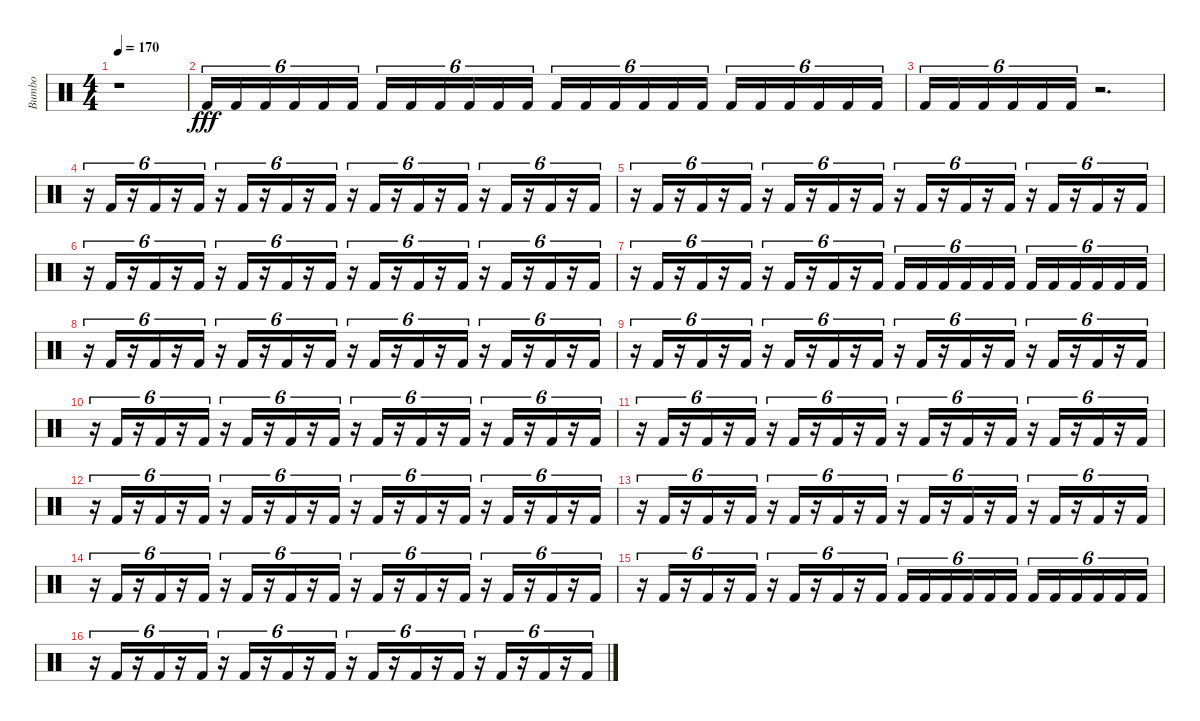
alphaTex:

\track ("Bumbo" "Bumbo") {instrument percussion}
\staff {score}
\articulation defaults
\ts (4 4)
\tempo 170
\clef neutral
\ks c
r.1{dy fff} |
"Kick (hit) 2".16{tu (6 4)} "Kick (hit) 2".16{tu (6 4)} "Kick (hit) 2".16{tu (6 4)} "Kick (hit) 2".16{tu (6 4)} "Kick (hit) 2".16{tu (6 4)} "Kick (hit) 2".16{tu (6 4)} "Kick (hit) 2".16{tu (6 4)} "Kick (hit) 2".16{tu (6 4)} "Kick (hit) 2".16{tu (6 4)} "Kick (hit) 2".16{tu (6 4)} "Kick (hit) 2".16{tu (6 4)} "Kick (hit) 2".16{tu (6 4)} "Kick (hit) 2".16{tu (6 4)} "Kick (hit) 2".16{tu (6 4)} "Kick (hit) 2".16{tu (6 4)} "Kick (hit) 2".16{tu (6 4)} "Kick (hit) 2".16{tu (6 4)} "Kick (hit) 2".16{tu (6 4)} "Kick (hit) 2".16{tu (6 4)} "Kick (hit) 2".16{tu (6 4)} "Kick (hit) 2".16{tu (6 4)} "Kick (hit) 2".16{tu (6 4)} "Kick (hit) 2".16{tu (6 4)} "Kick (hit) 2".16{tu (6 4)} |
"Kick (hit) 2".16{tu (6 4)} "Kick (hit) 2".16{tu (6 4)} "Kick (hit) 2".16{tu (6 4)} "Kick (hit) 2".16{tu (6 4)} "Kick (hit) 2".16{tu (6 4)} "Kick (hit) 2".16{tu (6 4)} r.2{d} |
r.16{tu (6 4)} "Kick (hit) 2".16{tu (6 4)} r.16{tu (6 4)} "Kick (hit) 2".16{tu (6 4)} r.16{tu (6 4)} "Kick (hit) 2".16{tu (6 4)} r.16{tu (6 4)} "Kick (hit) 2".16{tu (6 4)} r.16{tu (6 4)} "Kick (hit) 2".16{tu (6 4)} r.16{tu (6 4)} "Kick (hit) 2".16{tu (6 4)} r.16{tu (6 4)} "Kick (hit) 2".16{tu (6 4)} r.16{tu (6 4)} "Kick (hit) 2".16{tu (6 4)} r.16{tu (6 4)} "Kick (hit) 2".16{tu (6 4)} r.16{tu (6 4)} "Kick (hit) 2".16{tu (6 4)} r.16{tu (6 4)} "Kick (hit) 2".16{tu (6 4)} r.16{tu (6 4)} "Kick (hit) 2".16{tu (6 4)} |
r.16{tu (6 4)} "Kick (hit) 2".16{tu (6 4)} r.16{tu (6 4)} "Kick (hit) 2".16{tu (6 4)} r.16{tu (6 4)} "Kick (hit) 2".16{tu (6 4)} r.16{tu (6 4)} "Kick (hit) 2".16{tu (6 4)} r.16{tu (6 4)} "Kick (hit) 2".16{tu (6 4)} r.16{tu (6 4)} "Kick (hit) 2".16{tu (6 4)} r.16{tu (6 4)} "Kick (hit) 2".16{tu (6 4)} r.16{tu (6 4)} "Kick (hit) 2".16{tu (6 4)} r.16{tu (6 4)} "Kick (hit) 2".16{tu (6 4)} r.16{tu (6 4)} "Kick (hit) 2".16{tu (6 4)} r.16{tu (6 4)} "Kick (hit) 2".16{tu (6 4)} r.16{tu (6 4)} "Kick (hit) 2".16{tu (6 4)} |
r.16{tu (6 4)} "Kick (hit) 2".16{tu (6 4)} r.16{tu (6 4)} "Kick (hit) 2".16{tu (6 4)} r.16{tu (6 4)} "Kick (hit) 2".16{tu (6 4)} r.16{tu (6 4)} "Kick (hit) 2".16{tu (6 4)} r.16{tu (6 4)} "Kick (hit) 2".16{tu (6 4)} r.16{tu (6 4)} "Kick (hit) 2".16{tu (6 4)} r.16{tu (6 4)} "Kick (hit) 2".16{tu (6 4)} r.16{tu (6 4)} "Kick (hit) 2".16{tu (6 4)} r.16{tu (6 4)} "Kick (hit) 2".16{tu (6 4)} r.16{tu (6 4)} "Kick (hit) 2".16{tu (6 4)} r.16{tu (6 4)} "Kick (hit) 2".16{tu (6 4)} r.16{tu (6 4)} "Kick (hit) 2".16{tu (6 4)} |
r.16{tu (6 4)} "Kick (hit) 2".16{tu (6 4)} r.16{tu (6 4)} "Kick (hit) 2".16{tu (6 4)} r.16{tu (6 4)} "Kick (hit) 2".16{tu (6 4)} r.16{tu (6 4)} "Kick (hit) 2".16{tu (6 4)} r.16{tu (6 4)} "Kick (hit) 2".16{tu (6 4)} r.16{tu (6 4)} "Kick (hit) 2".16{tu (6 4)} "Kick (hit) 2".16{tu (6 4)} "Kick (hit) 2".16{tu (6 4)} "Kick (hit) 2".16{tu (6 4)} "Kick (hit) 2".16{tu (6 4)} "Kick (hit) 2".16{tu (6 4)} "Kick (hit) 2".16{tu (6 4)} "Kick (hit) 2".16{tu (6 4)} "Kick (hit) 2".16{tu (6 4)} "Kick (hit) 2".16{tu (6 4)} "Kick (hit) 2".16{tu (6 4)} "Kick (hit) 2".16{tu (6 4)} "Kick (hit) 2".16{tu (6 4)} |
r.16{tu (6 4)} "Kick (hit) 2".16{tu (6 4)} r.16{tu (6 4)} "Kick (hit) 2".16{tu (6 4)} r.16{tu (6 4)} "Kick (hit) 2".16{tu (6 4)} r.16{tu (6 4)} "Kick (hit) 2".16{tu (6 4)} r.16{tu (6 4)} "Kick (hit) 2".16{tu (6 4)} r.16{tu (6 4)} "Kick (hit) 2".16{tu (6 4)} r.16{tu (6 4)} "Kick (hit) 2".16{tu (6 4)} r.16{tu (6 4)} "Kick (hit) 2".16{tu (6 4)} r.16{tu (6 4)} "Kick (hit) 2".16{tu (6 4)} r.16{tu (6 4)} "Kick (hit) 2".16{tu (6 4)} r.16{tu (6 4)} "Kick (hit) 2".16{tu (6 4)} r.16{tu (6 4)} "Kick (hit) 2".16{tu (6 4)} |
r.16{tu (6 4)} "Kick (hit) 2".16{tu (6 4)} r.16{tu (6 4)} "Kick (hit) 2".16{tu (6 4)} r.16{tu (6 4)} "Kick (hit) 2".16{tu (6 4)} r.16{tu (6 4)} "Kick (hit) 2".16{tu (6 4)} r.16{tu (6 4)} "Kick (hit) 2".16{tu (6 4)} r.16{tu (6 4)} "Kick (hit) 2".16{tu (6 4)} r.16{tu (6 4)} "Kick (hit) 2".16{tu (6 4)} r.16{tu (6 4)} "Kick (hit) 2".16{tu (6 4)} r.16{tu (6 4)} "Kick (hit) 2".16{tu (6 4)} r.16{tu (6 4)} "Kick (hit) 2".16{tu (6 4)} r.16{tu (6 4)} "Kick (hit) 2".16{tu (6 4)} r.16{tu (6 4)} "Kick (hit) 2".16{tu (6 4)} |
r.16{tu (6 4)} "Kick (hit) 2".16{tu (6 4)} r.16{tu (6 4)} "Kick (hit) 2".16{tu (6 4)} r.16{tu (6 4)} "Kick (hit) 2".16{tu (6 4)} r.16{tu (6 4)} "Kick (hit) 2".16{tu (6 4)} r.16{tu (6 4)} "Kick (hit) 2".16{tu (6 4)} r.16{tu (6 4)} "Kick (hit) 2".16{tu (6 4)} r.16{tu (6 4)} "Kick (hit) 2".16{tu (6 4)} r.16{tu (6 4)} "Kick (hit) 2".16{tu (6 4)} r.16{tu (6 4)} "Kick (hit) 2".16{tu (6 4)} r.16{tu (6 4)} "Kick (hit) 2".16{tu (6 4)} r.16{tu (6 4)} "Kick (hit) 2".16{tu (6 4)} r.16{tu (6 4)} "Kick (hit) 2".16{tu (6 4)} |
r.16{tu (6 4)} "Kick (hit) 2".16{tu (6 4)} r.16{tu (6 4)} "Kick (hit) 2".16{tu (6 4)} r.16{tu (6 4)} "Kick (hit) 2".16{tu (6 4)} r.16{tu (6 4)} "Kick (hit) 2".16{tu (6 4)} r.16{tu (6 4)} "Kick (hit) 2".16{tu (6 4)} r.16{tu (6 4)} "Kick (hit) 2".16{tu (6 4)} r.16{tu (6 4)} "Kick (hit) 2".16{tu (6 4)} r.16{tu (6 4)} "Kick (hit) 2".16{tu (6 4)} r.16{tu (6 4)} "Kick (hit) 2".16{tu (6 4)} r.16{tu (6 4)} "Kick (hit) 2".16{tu (6 4)} r.16{tu (6 4)} "Kick (hit) 2".16{tu (6 4)} r.16{tu (6 4)} "Kick (hit) 2".16{tu (6 4)} |
r.16{tu (6 4)} "Kick (hit) 2".16{tu (6 4)} r.16{tu (6 4)} "Kick (hit) 2".16{tu (6 4)} r.16{tu (6 4)} "Kick (hit) 2".16{tu (6 4)} r.16{tu (6 4)} "Kick (hit) 2".16{tu (6 4)} r.16{tu (6 4)} "Kick (hit) 2".16{tu (6 4)} r.16{tu (6 4)} "Kick (hit) 2".16{tu (6 4)} r.16{tu (6 4)} "Kick (hit) 2".16{tu (6 4)} r.16{tu (6 4)} "Kick (hit) 2".16{tu (6 4)} r.16{tu (6 4)} "Kick (hit) 2".16{tu (6 4)} r.16{tu (6 4)} "Kick (hit) 2".16{tu (6 4)} r.16{tu (6 4)} "Kick (hit) 2".16{tu (6 4)} r.16{tu (6 4)} "Kick (hit) 2".16{tu (6 4)} |
r.16{tu (6 4)} "Kick (hit) 2".16{tu (6 4)} r.16{tu (6 4)} "Kick (hit) 2".16{tu (6 4)} r.16{tu (6 4)} "Kick (hit) 2".16{tu (6 4)} r.16{tu (6 4)} "Kick (hit) 2".16{tu (6 4)} r.16{tu (6 4)} "Kick (hit) 2".16{tu (6 4)} r.16{tu (6 4)} "Kick (hit) 2".16{tu (6 4)} r.16{tu (6 4)} "Kick (hit) 2".16{tu (6 4)} r.16{tu (6 4)} "Kick (hit) 2".16{tu (6 4)} r.16{tu (6 4)} "Kick (hit) 2".16{tu (6 4)} r.16{tu (6 4)} "Kick (hit) 2".16{tu (6 4)} r.16{tu (6 4)} "Kick (hit) 2".16{tu (6 4)} r.16{tu (6 4)} "Kick (hit) 2".16{tu (6 4)} |
r.16{tu (6 4)} "Kick (hit) 2".16{tu (6 4)} r.16{tu (6 4)} "Kick (hit) 2".16{tu (6 4)} r.16{tu (6 4)} "Kick (hit) 2".16{tu (6 4)} r.16{tu (6 4)} "Kick (hit) 2".16{tu (6 4)} r.16{tu (6 4)} "Kick (hit) 2".16{tu (6 4)} r.16{tu (6 4)} "Kick (hit) 2".16{tu (6 4)} r.16{tu (6 4)} "Kick (hit) 2".16{tu (6 4)} r.16{tu (6 4)} "Kick (hit) 2".16{tu (6 4)} r.16{tu (6 4)} "Kick (hit) 2".16{tu (6 4)} r.16{tu (6 4)} "Kick (hit) 2".16{tu (6 4)} r.16{tu (6 4)} "Kick (hit) 2".16{tu (6 4)} r.16{tu (6 4)} "Kick (hit) 2".16{tu (6 4)} |
r.16{tu (6 4)} "Kick (hit) 2".16{tu (6 4)} r.16{tu (6 4)} "Kick (hit) 2".16{tu (6 4)} r.16{tu (6 4)} "Kick (hit) 2".16{tu (6 4)} r.16{tu (6 4)} "Kick (hit) 2".16{tu (6 4)} r.16{tu (6 4)} "Kick (hit) 2".16{tu (6 4)} r.16{tu (6 4)} "Kick (hit) 2".16{tu (6 4)} "Kick (hit) 2".16{tu (6 4)} "Kick (hit) 2".16{tu (6 4)} "Kick (hit) 2".16{tu (6 4)} "Kick (hit) 2".16{tu (6 4)} "Kick (hit) 2".16{tu (6 4)} "Kick (hit) 2".16{tu (6 4)} "Kick (hit) 2".16{tu (6 4)} "Kick (hit) 2".16{tu (6 4)} "Kick (hit) 2".16{tu (6 4)} "Kick (hit) 2".16{tu (6 4)} "Kick (hit) 2".16{tu (6 4)} "Kick (hit) 2".16{tu (6 4)} |
r.16{tu (6 4)} "Kick (hit) 2".16{tu (6 4)} r.16{tu (6 4)} "Kick (hit) 2".16{tu (6 4)} r.16{tu (6 4)} "Kick (hit) 2".16{tu (6 4)} r.16{tu (6 4)} "Kick (hit) 2".16{tu (6 4)} r.16{tu (6 4)} "Kick (hit) 2".16{tu (6 4)} r.16{tu (6 4)} "Kick (hit) 2".16{tu (6 4)} r.16{tu (6 4)} "Kick (hit) 2".16{tu (6 4)} r.16{tu (6 4)} "Kick (hit) 2".16{tu (6 4)} r.16{tu (6 4)} "Kick (hit) 2".16{tu (6 4)} r.16{tu (6 4)} "Kick (hit) 2".16{tu (6 4)} r.16{tu (6 4)} "Kick (hit) 2".16{tu (6 4)} r.16{tu (6 4)} "Kick (hit) 2".16{tu (6 4)}
